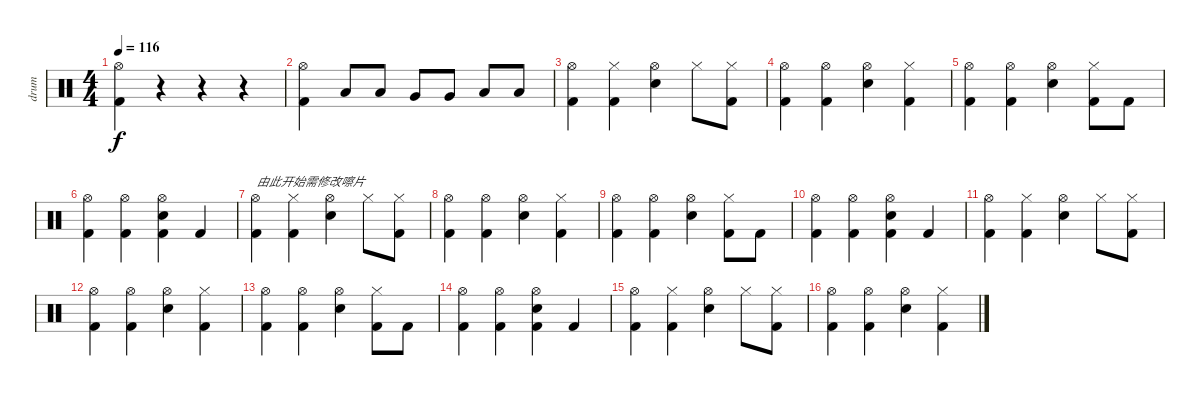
\track ("drum" "drum") {instrument percussion}
\staff {score}
\articulation defaults
\ts (4 4)
\tempo 116
\clef neutral
\ks c
("Hi-Hat (open)" "Kick (hit) 2").4{dy f} r.4 r.4 r.4 |
("Hi-Hat (open)" "Kick (hit) 2").4 "Low Tom (hit)".8 "Low Tom (hit)".8 "Very Low Tom (hit)".8 "Very Low Tom (hit)".8 "Low Tom (hit)".8 "Low Tom (hit)".8 |
("Hi-Hat (open)" "Kick (hit) 2").4 ("Hi-Hat (closed)" "Kick (hit) 2").4 ("Hi-Hat (open)" "Electric Snare (hit)").4 "Hi-Hat (closed)".8 ("Hi-Hat (closed)" "Kick (hit) 2").8 |
("Hi-Hat (open)" "Kick (hit) 2").4 ("Hi-Hat (open)" "Kick (hit) 2").4 ("Hi-Hat (open)" "Electric Snare (hit)").4 ("Hi-Hat (closed)" "Kick (hit) 2").4 |
("Hi-Hat (open)" "Kick (hit) 2").4 ("Hi-Hat (open)" "Kick (hit) 2").4 ("Hi-Hat (open)" "Electric Snare (hit)").4 ("Hi-Hat (closed)" "Kick (hit) 2").8 "Kick (hit) 2".8 |
("Hi-Hat (open)" "Kick (hit) 2").4 ("Hi-Hat (open)" "Kick (hit) 2").4 ("Hi-Hat (open)" "Electric Snare (hit)" "Kick (hit) 2").4 "Kick (hit) 2".4 |
("Hi-Hat (open)" "Kick (hit) 2").4{txt "由此开始需修改嚓片"} ("Hi-Hat (closed)" "Kick (hit) 2").4 ("Hi-Hat (open)" "Electric Snare (hit)").4 "Hi-Hat (closed)".8 ("Hi-Hat (closed)" "Kick (hit) 2").8 |
("Hi-Hat (open)" "Kick (hit) 2").4 ("Hi-Hat (open)" "Kick (hit) 2").4 ("Hi-Hat (open)" "Electric Snare (hit)").4 ("Hi-Hat (closed)" "Kick (hit) 2").4 |
("Hi-Hat (open)" "Kick (hit) 2").4 ("Hi-Hat (open)" "Kick (hit) 2").4 ("Hi-Hat (open)" "Electric Snare (hit)").4 ("Hi-Hat (closed)" "Kick (hit) 2").8 "Kick (hit) 2".8 |
("Hi-Hat (open)" "Kick (hit) 2").4 ("Hi-Hat (open)" "Kick (hit) 2").4 ("Hi-Hat (open)" "Electric Snare (hit)" "Kick (hit) 2").4 "Kick (hit) 2".4 |
("Hi-Hat (open)" "Kick (hit) 2").4 ("Hi-Hat (closed)" "Kick (hit) 2").4 ("Hi-Hat (open)" "Electric Snare (hit)").4 "Hi-Hat (closed)".8 ("Hi-Hat (closed)" "Kick (hit) 2").8 |
("Hi-Hat (open)" "Kick (hit) 2").4 ("Hi-Hat (open)" "Kick (hit) 2").4 ("Hi-Hat (open)" "Electric Snare (hit)").4 ("Hi-Hat (closed)" "Kick (hit) 2").4 |
("Hi-Hat (open)" "Kick (hit) 2").4 ("Hi-Hat (open)" "Kick (hit) 2").4 ("Hi-Hat (open)" "Electric Snare (hit)").4 ("Hi-Hat (closed)" "Kick (hit) 2").8 "Kick (hit) 2".8 |
("Hi-Hat (open)" "Kick (hit) 2").4 ("Hi-Hat (open)" "Kick (hit) 2").4 ("Hi-Hat (open)" "Electric Snare (hit)" "Kick (hit) 2").4 "Kick (hit) 2".4 |
("Hi-Hat (open)" "Kick (hit) 2").4 ("Hi-Hat (closed)" "Kick (hit) 2").4 ("Hi-Hat (open)" "Electric Snare (hit)").4 "Hi-Hat (closed)".8 ("Hi-Hat (closed)" "Kick (hit) 2").8 |
("Hi-Hat (open)" "Kick (hit) 2").4 ("Hi-Hat (open)" "Kick (hit) 2").4 ("Hi-Hat (open)" "Electric Snare (hit)").4 ("Hi-Hat (closed)" "Kick (hit) 2").4
